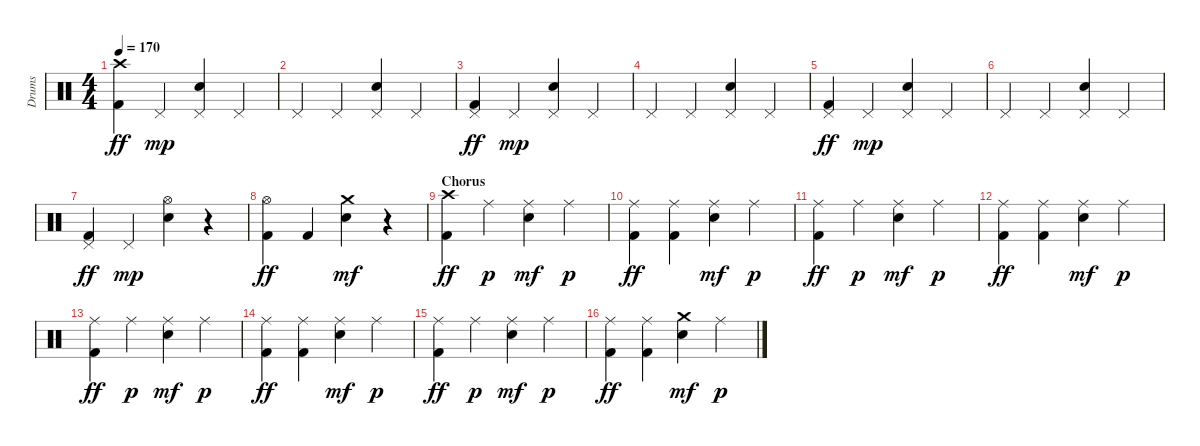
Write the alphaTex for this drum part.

\track ("Drums" "Drums") {instrument percussion}
\staff {score}
\articulation defaults
\ts (4 4)
\tempo 170
\clef neutral
\ks c
("Crash high (hit)" "Kick (hit) 2").4{dy ff} "Pedal Hi-Hat (hit)".4{dy mp} ("Pedal Hi-Hat (hit)" "Electric Snare (hit)").4 "Pedal Hi-Hat (hit)".4 |
"Pedal Hi-Hat (hit)".4 "Pedal Hi-Hat (hit)".4 ("Pedal Hi-Hat (hit)" "Electric Snare (hit)").4 "Pedal Hi-Hat (hit)".4 |
("Pedal Hi-Hat (hit)" "Kick (hit) 2").4{dy ff} "Pedal Hi-Hat (hit)".4{dy mp} ("Pedal Hi-Hat (hit)" "Electric Snare (hit)").4 "Pedal Hi-Hat (hit)".4 |
"Pedal Hi-Hat (hit)".4 "Pedal Hi-Hat (hit)".4 ("Pedal Hi-Hat (hit)" "Electric Snare (hit)").4 "Pedal Hi-Hat (hit)".4 |
("Pedal Hi-Hat (hit)" "Kick (hit) 2").4{dy ff} "Pedal Hi-Hat (hit)".4{dy mp} ("Pedal Hi-Hat (hit)" "Electric Snare (hit)").4 "Pedal Hi-Hat (hit)".4 |
"Pedal Hi-Hat (hit)".4 "Pedal Hi-Hat (hit)".4 ("Pedal Hi-Hat (hit)" "Electric Snare (hit)").4 "Pedal Hi-Hat (hit)".4 |
("Pedal Hi-Hat (hit)" "Kick (hit) 2").4{dy ff} "Pedal Hi-Hat (hit)".4{dy mp} ("Hi-Hat (open)" "Electric Snare (hit)").4 r.4 |
("Hi-Hat (open)" "Kick (hit) 2").4{dy ff} "Kick (hit) 2".4 ("Crash medium (hit)" "Electric Snare (hit)").4{dy mf} r.4 |
\section ("" "Chorus")
("Crash high (hit)" "Kick (hit) 2").4{dy ff} "Ride (middle)".4{dy p} ("Ride (middle)" "Electric Snare (hit)").4{dy mf} "Ride (middle)".4{dy p} |
("Ride (middle)" "Kick (hit) 2").4{dy ff} ("Ride (middle)" "Kick (hit) 2").4 ("Ride (middle)" "Electric Snare (hit)").4{dy mf} "Ride (middle)".4{dy p} |
("Ride (middle)" "Kick (hit) 2").4{dy ff} "Ride (middle)".4{dy p} ("Ride (middle)" "Electric Snare (hit)").4{dy mf} "Ride (middle)".4{dy p} |
("Ride (middle)" "Kick (hit) 2").4{dy ff} ("Ride (middle)" "Kick (hit) 2").4 ("Ride (middle)" "Electric Snare (hit)").4{dy mf} "Ride (middle)".4{dy p} |
("Ride (middle)" "Kick (hit) 2").4{dy ff} "Ride (middle)".4{dy p} ("Ride (middle)" "Electric Snare (hit)").4{dy mf} "Ride (middle)".4{dy p} |
("Ride (middle)" "Kick (hit) 2").4{dy ff} ("Ride (middle)" "Kick (hit) 2").4 ("Ride (middle)" "Electric Snare (hit)").4{dy mf} "Ride (middle)".4{dy p} |
("Ride (middle)" "Kick (hit) 2").4{dy ff} "Ride (middle)".4{dy p} ("Ride (middle)" "Electric Snare (hit)").4{dy mf} "Ride (middle)".4{dy p} |
("Ride (middle)" "Kick (hit) 2").4{dy ff} ("Ride (middle)" "Kick (hit) 2").4 ("Crash medium (hit)" "Electric Snare (hit)").4{dy mf} "Ride (middle)".4{dy p}
